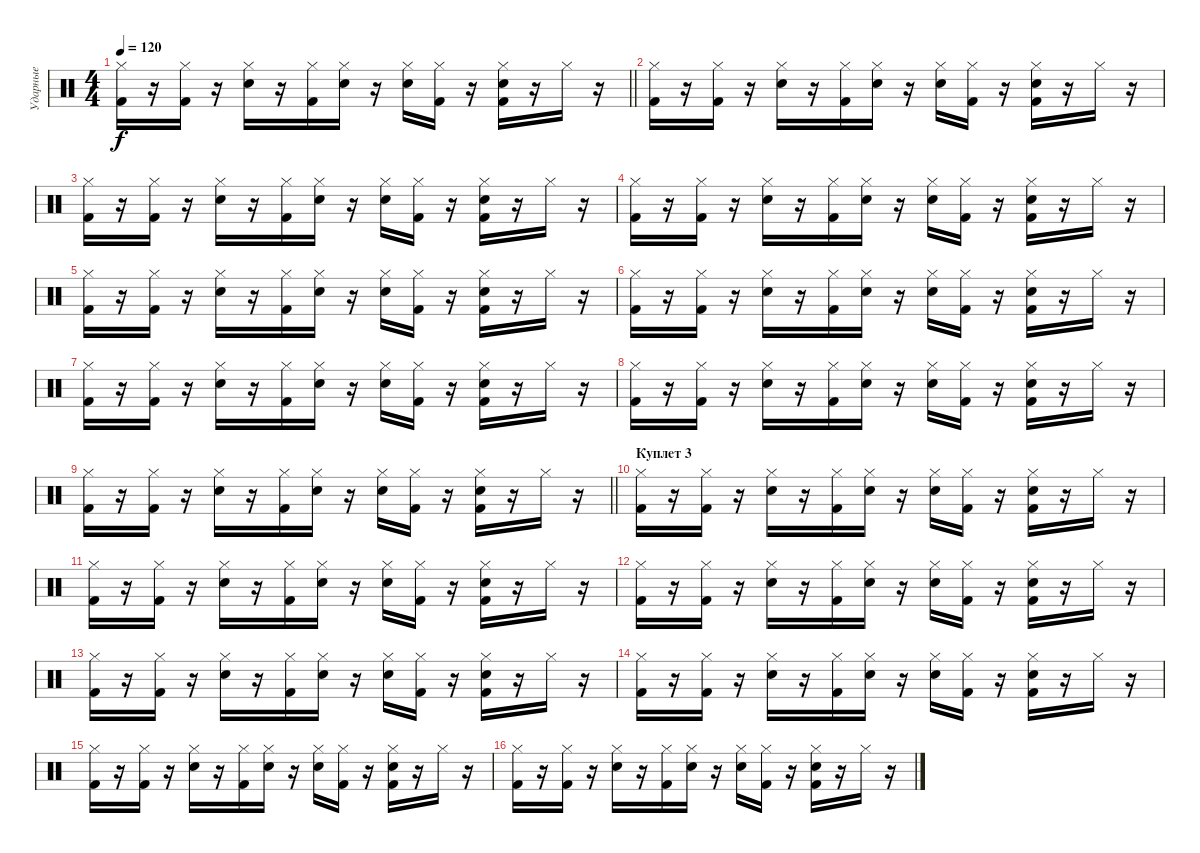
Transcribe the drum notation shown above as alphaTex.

\track ("Ударные" "Ударные") {instrument percussion}
\staff {score}
\articulation defaults
\ts (4 4)
\tempo 120
\clef neutral
\barLineRight lightlight
\ks c
("Hi-Hat (closed)" "Kick (hit) 2").16{dy f} r.16 ("Hi-Hat (closed)" "Kick (hit) 2").16 r.16 ("Hi-Hat (closed)" "Electric Snare (hit)").16 r.16 ("Hi-Hat (closed)" "Kick (hit) 2").16 ("Hi-Hat (closed)" "Electric Snare (hit)").16 r.16 ("Hi-Hat (closed)" "Electric Snare (hit)").16 ("Hi-Hat (closed)" "Kick (hit) 2").16 r.16 ("Hi-Hat (closed)" "Electric Snare (hit)" "Kick (hit) 2").16 r.16 "Hi-Hat (closed)".16 r.16 |
("Hi-Hat (closed)" "Kick (hit) 2").16 r.16 ("Hi-Hat (closed)" "Kick (hit) 2").16 r.16 ("Hi-Hat (closed)" "Electric Snare (hit)").16 r.16 ("Hi-Hat (closed)" "Kick (hit) 2").16 ("Hi-Hat (closed)" "Electric Snare (hit)").16 r.16 ("Hi-Hat (closed)" "Electric Snare (hit)").16 ("Hi-Hat (closed)" "Kick (hit) 2").16 r.16 ("Hi-Hat (closed)" "Electric Snare (hit)" "Kick (hit) 2").16 r.16 "Hi-Hat (closed)".16 r.16 |
("Hi-Hat (closed)" "Kick (hit) 2").16 r.16 ("Hi-Hat (closed)" "Kick (hit) 2").16 r.16 ("Hi-Hat (closed)" "Electric Snare (hit)").16 r.16 ("Hi-Hat (closed)" "Kick (hit) 2").16 ("Hi-Hat (closed)" "Electric Snare (hit)").16 r.16 ("Hi-Hat (closed)" "Electric Snare (hit)").16 ("Hi-Hat (closed)" "Kick (hit) 2").16 r.16 ("Hi-Hat (closed)" "Electric Snare (hit)" "Kick (hit) 2").16 r.16 "Hi-Hat (closed)".16 r.16 |
("Hi-Hat (closed)" "Kick (hit) 2").16 r.16 ("Hi-Hat (closed)" "Kick (hit) 2").16 r.16 ("Hi-Hat (closed)" "Electric Snare (hit)").16 r.16 ("Hi-Hat (closed)" "Kick (hit) 2").16 ("Hi-Hat (closed)" "Electric Snare (hit)").16 r.16 ("Hi-Hat (closed)" "Electric Snare (hit)").16 ("Hi-Hat (closed)" "Kick (hit) 2").16 r.16 ("Hi-Hat (closed)" "Electric Snare (hit)" "Kick (hit) 2").16 r.16 "Hi-Hat (closed)".16 r.16 |
("Hi-Hat (closed)" "Kick (hit) 2").16 r.16 ("Hi-Hat (closed)" "Kick (hit) 2").16 r.16 ("Hi-Hat (closed)" "Electric Snare (hit)").16 r.16 ("Hi-Hat (closed)" "Kick (hit) 2").16 ("Hi-Hat (closed)" "Electric Snare (hit)").16 r.16 ("Hi-Hat (closed)" "Electric Snare (hit)").16 ("Hi-Hat (closed)" "Kick (hit) 2").16 r.16 ("Hi-Hat (closed)" "Electric Snare (hit)" "Kick (hit) 2").16 r.16 "Hi-Hat (closed)".16 r.16 |
("Hi-Hat (closed)" "Kick (hit) 2").16 r.16 ("Hi-Hat (closed)" "Kick (hit) 2").16 r.16 ("Hi-Hat (closed)" "Electric Snare (hit)").16 r.16 ("Hi-Hat (closed)" "Kick (hit) 2").16 ("Hi-Hat (closed)" "Electric Snare (hit)").16 r.16 ("Hi-Hat (closed)" "Electric Snare (hit)").16 ("Hi-Hat (closed)" "Kick (hit) 2").16 r.16 ("Hi-Hat (closed)" "Electric Snare (hit)" "Kick (hit) 2").16 r.16 "Hi-Hat (closed)".16 r.16 |
("Hi-Hat (closed)" "Kick (hit) 2").16 r.16 ("Hi-Hat (closed)" "Kick (hit) 2").16 r.16 ("Hi-Hat (closed)" "Electric Snare (hit)").16 r.16 ("Hi-Hat (closed)" "Kick (hit) 2").16 ("Hi-Hat (closed)" "Electric Snare (hit)").16 r.16 ("Hi-Hat (closed)" "Electric Snare (hit)").16 ("Hi-Hat (closed)" "Kick (hit) 2").16 r.16 ("Hi-Hat (closed)" "Electric Snare (hit)" "Kick (hit) 2").16 r.16 "Hi-Hat (closed)".16 r.16 |
("Hi-Hat (closed)" "Kick (hit) 2").16 r.16 ("Hi-Hat (closed)" "Kick (hit) 2").16 r.16 ("Hi-Hat (closed)" "Electric Snare (hit)").16 r.16 ("Hi-Hat (closed)" "Kick (hit) 2").16 ("Hi-Hat (closed)" "Electric Snare (hit)").16 r.16 ("Hi-Hat (closed)" "Electric Snare (hit)").16 ("Hi-Hat (closed)" "Kick (hit) 2").16 r.16 ("Hi-Hat (closed)" "Electric Snare (hit)" "Kick (hit) 2").16 r.16 "Hi-Hat (closed)".16 r.16 |
\barLineRight lightlight
("Hi-Hat (closed)" "Kick (hit) 2").16 r.16 ("Hi-Hat (closed)" "Kick (hit) 2").16 r.16 ("Hi-Hat (closed)" "Electric Snare (hit)").16 r.16 ("Hi-Hat (closed)" "Kick (hit) 2").16 ("Hi-Hat (closed)" "Electric Snare (hit)").16 r.16 ("Hi-Hat (closed)" "Electric Snare (hit)").16 ("Hi-Hat (closed)" "Kick (hit) 2").16 r.16 ("Hi-Hat (closed)" "Electric Snare (hit)" "Kick (hit) 2").16 r.16 "Hi-Hat (closed)".16 r.16 |
\section ("" "Куплет 3")
("Hi-Hat (closed)" "Kick (hit) 2").16 r.16 ("Hi-Hat (closed)" "Kick (hit) 2").16 r.16 ("Hi-Hat (closed)" "Electric Snare (hit)").16 r.16 ("Hi-Hat (closed)" "Kick (hit) 2").16 ("Hi-Hat (closed)" "Electric Snare (hit)").16 r.16 ("Hi-Hat (closed)" "Electric Snare (hit)").16 ("Hi-Hat (closed)" "Kick (hit) 2").16 r.16 ("Hi-Hat (closed)" "Electric Snare (hit)" "Kick (hit) 2").16 r.16 "Hi-Hat (closed)".16 r.16 |
("Hi-Hat (closed)" "Kick (hit) 2").16 r.16 ("Hi-Hat (closed)" "Kick (hit) 2").16 r.16 ("Hi-Hat (closed)" "Electric Snare (hit)").16 r.16 ("Hi-Hat (closed)" "Kick (hit) 2").16 ("Hi-Hat (closed)" "Electric Snare (hit)").16 r.16 ("Hi-Hat (closed)" "Electric Snare (hit)").16 ("Hi-Hat (closed)" "Kick (hit) 2").16 r.16 ("Hi-Hat (closed)" "Electric Snare (hit)" "Kick (hit) 2").16 r.16 "Hi-Hat (closed)".16 r.16 |
("Hi-Hat (closed)" "Kick (hit) 2").16 r.16 ("Hi-Hat (closed)" "Kick (hit) 2").16 r.16 ("Hi-Hat (closed)" "Electric Snare (hit)").16 r.16 ("Hi-Hat (closed)" "Kick (hit) 2").16 ("Hi-Hat (closed)" "Electric Snare (hit)").16 r.16 ("Hi-Hat (closed)" "Electric Snare (hit)").16 ("Hi-Hat (closed)" "Kick (hit) 2").16 r.16 ("Hi-Hat (closed)" "Electric Snare (hit)" "Kick (hit) 2").16 r.16 "Hi-Hat (closed)".16 r.16 |
("Hi-Hat (closed)" "Kick (hit) 2").16 r.16 ("Hi-Hat (closed)" "Kick (hit) 2").16 r.16 ("Hi-Hat (closed)" "Electric Snare (hit)").16 r.16 ("Hi-Hat (closed)" "Kick (hit) 2").16 ("Hi-Hat (closed)" "Electric Snare (hit)").16 r.16 ("Hi-Hat (closed)" "Electric Snare (hit)").16 ("Hi-Hat (closed)" "Kick (hit) 2").16 r.16 ("Hi-Hat (closed)" "Electric Snare (hit)" "Kick (hit) 2").16 r.16 "Hi-Hat (closed)".16 r.16 |
("Hi-Hat (closed)" "Kick (hit) 2").16 r.16 ("Hi-Hat (closed)" "Kick (hit) 2").16 r.16 ("Hi-Hat (closed)" "Electric Snare (hit)").16 r.16 ("Hi-Hat (closed)" "Kick (hit) 2").16 ("Hi-Hat (closed)" "Electric Snare (hit)").16 r.16 ("Hi-Hat (closed)" "Electric Snare (hit)").16 ("Hi-Hat (closed)" "Kick (hit) 2").16 r.16 ("Hi-Hat (closed)" "Electric Snare (hit)" "Kick (hit) 2").16 r.16 "Hi-Hat (closed)".16 r.16 |
("Hi-Hat (closed)" "Kick (hit) 2").16 r.16 ("Hi-Hat (closed)" "Kick (hit) 2").16 r.16 ("Hi-Hat (closed)" "Electric Snare (hit)").16 r.16 ("Hi-Hat (closed)" "Kick (hit) 2").16 ("Hi-Hat (closed)" "Electric Snare (hit)").16 r.16 ("Hi-Hat (closed)" "Electric Snare (hit)").16 ("Hi-Hat (closed)" "Kick (hit) 2").16 r.16 ("Hi-Hat (closed)" "Electric Snare (hit)" "Kick (hit) 2").16 r.16 "Hi-Hat (closed)".16 r.16 |
("Hi-Hat (closed)" "Kick (hit) 2").16 r.16 ("Hi-Hat (closed)" "Kick (hit) 2").16 r.16 ("Hi-Hat (closed)" "Electric Snare (hit)").16 r.16 ("Hi-Hat (closed)" "Kick (hit) 2").16 ("Hi-Hat (closed)" "Electric Snare (hit)").16 r.16 ("Hi-Hat (closed)" "Electric Snare (hit)").16 ("Hi-Hat (closed)" "Kick (hit) 2").16 r.16 ("Hi-Hat (closed)" "Electric Snare (hit)" "Kick (hit) 2").16 r.16 "Hi-Hat (closed)".16 r.16
